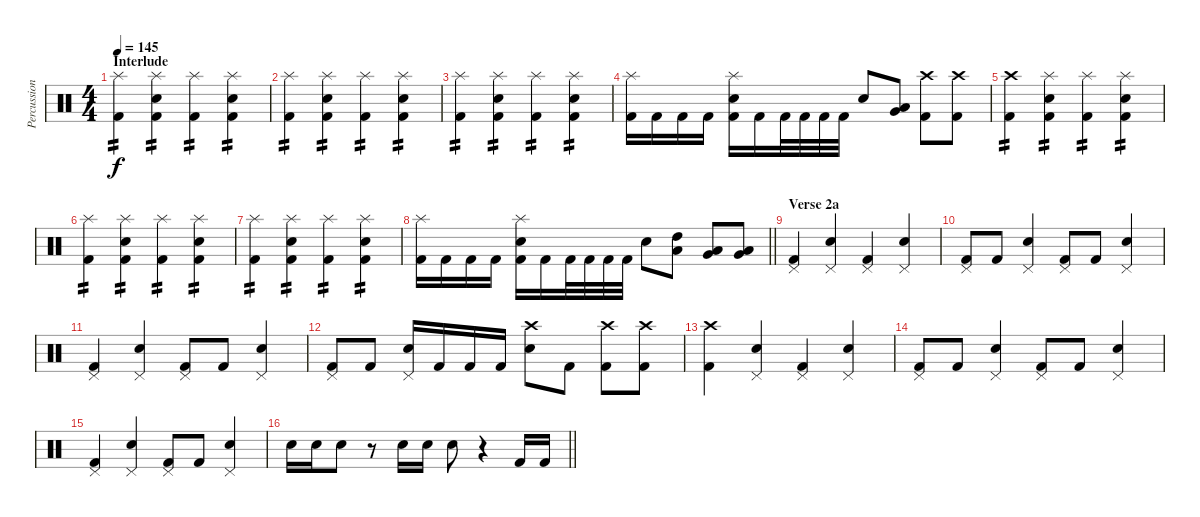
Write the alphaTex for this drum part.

\track ("Percussion" "Percussion") {instrument percussion}
\staff {score}
\articulation defaults
\ts (4 4)
\section ("" "Interlude")
\tempo 145
\clef neutral
\ks c
("Splash (hit)" "Kick (hit) 2").4{tp 2 dy f} ("Electric Snare (hit)" "Splash (hit)" "Kick (hit) 2").4{tp 2} ("Splash (hit)" "Kick (hit) 2").4{tp 2} ("Electric Snare (hit)" "Splash (hit)" "Kick (hit) 2").4{tp 2} |
("Splash (hit)" "Kick (hit) 2").4{tp 2} ("Electric Snare (hit)" "Splash (hit)" "Kick (hit) 2").4{tp 2} ("Splash (hit)" "Kick (hit) 2").4{tp 2} ("Electric Snare (hit)" "Splash (hit)" "Kick (hit) 2").4{tp 2} |
("Splash (hit)" "Kick (hit) 2").4{tp 2} ("Electric Snare (hit)" "Splash (hit)" "Kick (hit) 2").4{tp 2} ("Splash (hit)" "Kick (hit) 2").4{tp 2} ("Electric Snare (hit)" "Splash (hit)" "Kick (hit) 2").4{tp 2} |
("Splash (hit)" "Kick (hit) 2").16 "Kick (hit) 2".16 "Kick (hit) 2".16 "Kick (hit) 2".16 ("Electric Snare (hit)" "Splash (hit)" "Kick (hit) 2").16 "Kick (hit) 2".16 "Kick (hit) 2".32 "Kick (hit) 2".32 "Kick (hit) 2".32 "Kick (hit) 2".32 "Electric Snare (hit)".8 ("Very Low Tom (hit)" "Low Floor Tom (hit)").8 ("Crash high (hit)" "Kick (hit) 2").8 ("Crash high (hit)" "Kick (hit) 2").8 |
("Crash high (hit)" "Kick (hit) 2").4{tp 2} ("Electric Snare (hit)" "Splash (hit)" "Kick (hit) 2").4{tp 2} ("Splash (hit)" "Kick (hit) 2").4{tp 2} ("Electric Snare (hit)" "Splash (hit)" "Kick (hit) 2").4{tp 2} |
("Splash (hit)" "Kick (hit) 2").4{tp 2} ("Electric Snare (hit)" "Splash (hit)" "Kick (hit) 2").4{tp 2} ("Splash (hit)" "Kick (hit) 2").4{tp 2} ("Electric Snare (hit)" "Splash (hit)" "Kick (hit) 2").4{tp 2} |
("Splash (hit)" "Kick (hit) 2").4{tp 2} ("Electric Snare (hit)" "Splash (hit)" "Kick (hit) 2").4{tp 2} ("Splash (hit)" "Kick (hit) 2").4{tp 2} ("Electric Snare (hit)" "Splash (hit)" "Kick (hit) 2").4{tp 2} |
\barLineRight lightlight
("Splash (hit)" "Kick (hit) 2").16 "Kick (hit) 2".16 "Kick (hit) 2".16 "Kick (hit) 2".16 ("Electric Snare (hit)" "Splash (hit)" "Kick (hit) 2").16 "Kick (hit) 2".16 "Kick (hit) 2".32 "Kick (hit) 2".32 "Kick (hit) 2".32 "Kick (hit) 2".32 "Electric Snare (hit)".8 ("High Tom (hit)" "Low Tom (hit)").8 ("Low Tom (hit)" "Very Low Tom (hit)").8 ("Very Low Tom (hit)" "Low Floor Tom (hit)").8 |
\section ("" "Verse 2a")
("Pedal Hi-Hat (hit)" "Kick (hit) 2").4 ("Electric Snare (hit)" "Pedal Hi-Hat (hit)").4 ("Pedal Hi-Hat (hit)" "Kick (hit) 2").4 ("Electric Snare (hit)" "Pedal Hi-Hat (hit)").4 |
("Pedal Hi-Hat (hit)" "Kick (hit) 2").8 "Kick (hit) 2".8 ("Electric Snare (hit)" "Pedal Hi-Hat (hit)").4 ("Pedal Hi-Hat (hit)" "Kick (hit) 2").8 "Kick (hit) 2".8 ("Electric Snare (hit)" "Pedal Hi-Hat (hit)").4 |
("Pedal Hi-Hat (hit)" "Kick (hit) 2").4 ("Electric Snare (hit)" "Pedal Hi-Hat (hit)").4 ("Pedal Hi-Hat (hit)" "Kick (hit) 2").8 "Kick (hit) 2".8 ("Electric Snare (hit)" "Pedal Hi-Hat (hit)").4 |
("Pedal Hi-Hat (hit)" "Kick (hit) 2").8 "Kick (hit) 2".8 ("Electric Snare (hit)" "Pedal Hi-Hat (hit)").16 "Kick (hit) 2".16 "Kick (hit) 2".16 "Kick (hit) 2".16 ("Electric Snare (hit)" "Crash high (hit)").8 "Kick (hit) 2".8 ("Crash high (hit)" "Kick (hit) 2").8 ("Crash high (hit)" "Kick (hit) 2").8 |
("Crash high (hit)" "Kick (hit) 2").4 ("Electric Snare (hit)" "Pedal Hi-Hat (hit)").4 ("Pedal Hi-Hat (hit)" "Kick (hit) 2").4 ("Electric Snare (hit)" "Pedal Hi-Hat (hit)").4 |
("Pedal Hi-Hat (hit)" "Kick (hit) 2").8 "Kick (hit) 2".8 ("Electric Snare (hit)" "Pedal Hi-Hat (hit)").4 ("Pedal Hi-Hat (hit)" "Kick (hit) 2").8 "Kick (hit) 2".8 ("Electric Snare (hit)" "Pedal Hi-Hat (hit)").4 |
("Pedal Hi-Hat (hit)" "Kick (hit) 2").4 ("Electric Snare (hit)" "Pedal Hi-Hat (hit)").4 ("Pedal Hi-Hat (hit)" "Kick (hit) 2").8 "Kick (hit) 2".8 ("Electric Snare (hit)" "Pedal Hi-Hat (hit)").4 |
\barLineRight lightlight "Electric Snare (hit)".16 "Electric Snare (hit)".16 "Electric Snare (hit)".8
r.8 "Electric Snare (hit)".16 "Electric Snare (hit)".16 "Electric Snare (hit)".8 r.4 "Kick (hit) 2".16 "Kick (hit) 2".16
